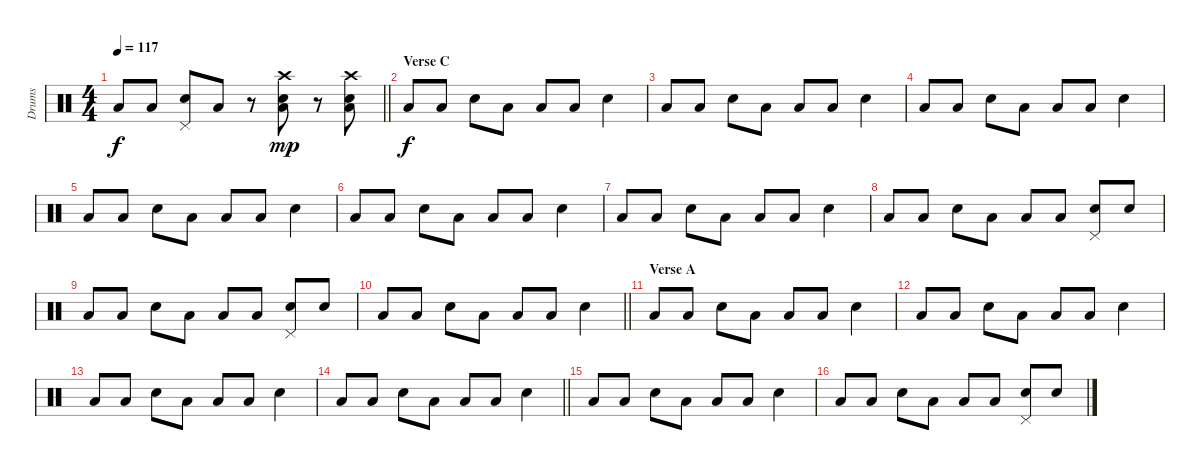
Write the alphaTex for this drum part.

\track ("Drums" "Drums") {instrument percussion}
\staff {score}
\articulation defaults
\ts (4 4)
\tempo 117
\clef neutral
\barLineRight lightlight
\ks c "Low Tom (hit)".8{dy f} "Low Tom (hit)".8
("Snare (hit) 2" "Pedal Hi-Hat (hit)").8 "Low Tom (hit)".8 r.8 ("Low Tom (hit)" "Crash high (hit)" "Snare (hit) 2").8{dy mp} r.8 ("Low Tom (hit)" "Crash high (hit)" "Snare (hit) 2").8 |
\section ("" "Verse C")
"Low Tom (hit)".8{dy f} "Low Tom (hit)".8 "Snare (hit) 2".8 "Low Tom (hit)".8 "Low Tom (hit)".8 "Low Tom (hit)".8 "Snare (hit) 2".4 |
"Low Tom (hit)".8 "Low Tom (hit)".8 "Snare (hit) 2".8 "Low Tom (hit)".8 "Low Tom (hit)".8 "Low Tom (hit)".8 "Snare (hit) 2".4 |
"Low Tom (hit)".8 "Low Tom (hit)".8 "Snare (hit) 2".8 "Low Tom (hit)".8 "Low Tom (hit)".8 "Low Tom (hit)".8 "Snare (hit) 2".4 |
"Low Tom (hit)".8 "Low Tom (hit)".8 "Snare (hit) 2".8 "Low Tom (hit)".8 "Low Tom (hit)".8 "Low Tom (hit)".8 "Snare (hit) 2".4 |
"Low Tom (hit)".8 "Low Tom (hit)".8 "Snare (hit) 2".8 "Low Tom (hit)".8 "Low Tom (hit)".8 "Low Tom (hit)".8 "Snare (hit) 2".4 |
"Low Tom (hit)".8 "Low Tom (hit)".8 "Snare (hit) 2".8 "Low Tom (hit)".8 "Low Tom (hit)".8 "Low Tom (hit)".8 "Snare (hit) 2".4 |
"Low Tom (hit)".8 "Low Tom (hit)".8 "Snare (hit) 2".8 "Low Tom (hit)".8 "Low Tom (hit)".8 "Low Tom (hit)".8 ("Snare (hit) 2" "Pedal Hi-Hat (hit)").8 "Snare (hit) 2".8 |
"Low Tom (hit)".8 "Low Tom (hit)".8 "Snare (hit) 2".8 "Low Tom (hit)".8 "Low Tom (hit)".8 "Low Tom (hit)".8 ("Snare (hit) 2" "Pedal Hi-Hat (hit)").8 "Snare (hit) 2".8 |
\barLineRight lightlight "Low Tom (hit)".8 "Low Tom (hit)".8 "Snare (hit) 2".8 "Low Tom (hit)".8 "Low Tom (hit)".8 "Low Tom (hit)".8 "Snare (hit) 2".4
|
\section ("" "Verse A")
"Low Tom (hit)".8 "Low Tom (hit)".8 "Snare (hit) 2".8 "Low Tom (hit)".8 "Low Tom (hit)".8 "Low Tom (hit)".8 "Snare (hit) 2".4 |
"Low Tom (hit)".8 "Low Tom (hit)".8 "Snare (hit) 2".8 "Low Tom (hit)".8 "Low Tom (hit)".8 "Low Tom (hit)".8 "Snare (hit) 2".4 |
"Low Tom (hit)".8 "Low Tom (hit)".8 "Snare (hit) 2".8 "Low Tom (hit)".8 "Low Tom (hit)".8 "Low Tom (hit)".8 "Snare (hit) 2".4 |
\barLineRight lightlight "Low Tom (hit)".8 "Low Tom (hit)".8 "Snare (hit) 2".8 "Low Tom (hit)".8 "Low Tom (hit)".8 "Low Tom (hit)".8 "Snare (hit) 2".4
|
"Low Tom (hit)".8 "Low Tom (hit)".8 "Snare (hit) 2".8 "Low Tom (hit)".8 "Low Tom (hit)".8 "Low Tom (hit)".8 "Snare (hit) 2".4 |
"Low Tom (hit)".8 "Low Tom (hit)".8 "Snare (hit) 2".8 "Low Tom (hit)".8 "Low Tom (hit)".8 "Low Tom (hit)".8 ("Snare (hit) 2" "Pedal Hi-Hat (hit)").8 "Snare (hit) 2".8
